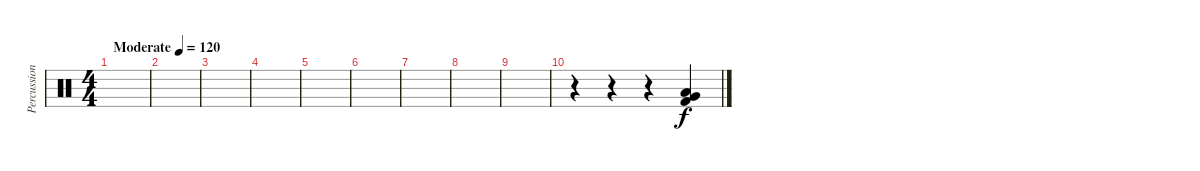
\track ("Percussions" "Percussion") {instrument percussion}
\staff {score}
\articulation defaults
\ts (4 4)
\tempo (120 "Moderate")
\clef neutral
\ks c
|
|
|
|
|
|
|
|
|
r.4 r.4 r.4 ("Low Floor Tom (hit)" "Very Low Tom (hit)" "Kick (hit) 2").4
